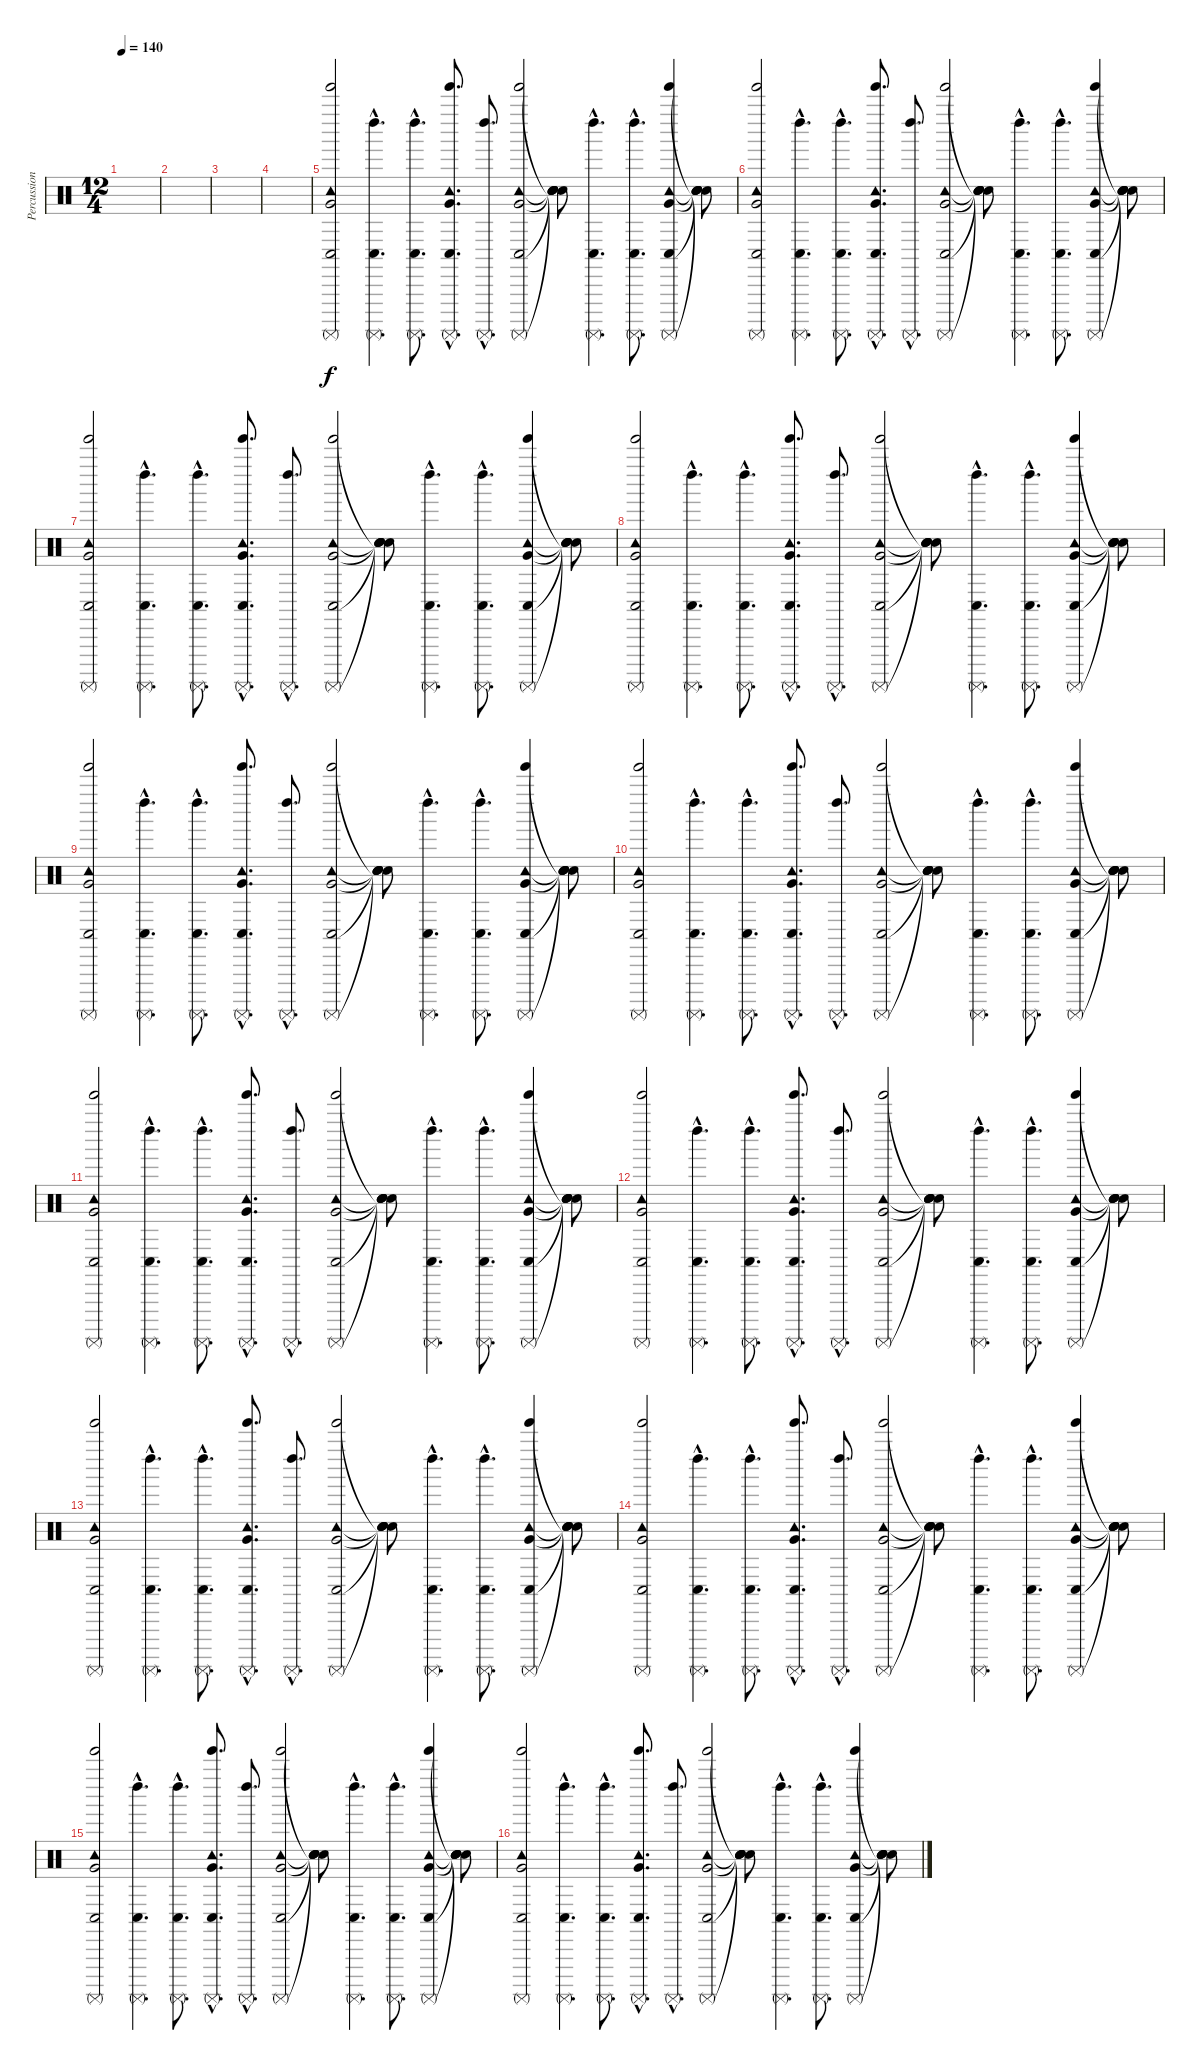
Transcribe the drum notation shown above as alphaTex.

\track ("Percussions" "Percussion") {instrument percussion}
\staff {score}
\articulation defaults
\ts (12 4)
\tempo 140
\clef neutral
\ks c
|
|
|
|
("Conga low (hit)" "Tinkle Bell (hit)" "Very Low Tom (hit)" "Tambourine (hit)" "Surdo (mute)").2 ("Conga low (hit)"{hac} "Left Maraca (hit)"{hac} "Surdo (mute)"{hac}).4{d} ("Conga low (hit)"{hac} "Left Maraca (hit)"{hac} "Surdo (mute)"{hac}).8{d} ("Conga low (hit)"{hac} "Tinkle Bell (hit)"{hac} "Very Low Tom (hit)"{hac} "Tambourine (hit)"{hac} "Surdo (mute)"{hac}).8{d} ("Left Maraca (hit)"{hac} "Surdo (mute)"{hac}).8{d} ("Conga low (hit)" "Tinkle Bell (hit)" "Very Low Tom (hit)" "Tambourine (hit)" "Surdo (mute)").2 ("Snare (hit)"{t} "Snare (hit)"{t} "Snare (hit)"{t} "Snare (hit)"{t} "Snare (hit)"{t}).8 ("Conga low (hit)"{hac} "Left Maraca (hit)"{hac} "Surdo (mute)"{hac}).4{d} ("Conga low (hit)"{hac} "Left Maraca (hit)"{hac} "Surdo (mute)"{hac}).8{d} ("Conga low (hit)" "Tinkle Bell (hit)" "Very Low Tom (hit)" "Tambourine (hit)" "Surdo (mute)").4 ("Snare (hit)"{t} "Snare (hit)"{t} "Snare (hit)"{t} "Snare (hit)"{t} "Snare (hit)"{t}).8 |
("Conga low (hit)" "Tinkle Bell (hit)" "Very Low Tom (hit)" "Tambourine (hit)" "Surdo (mute)").2 ("Conga low (hit)"{hac} "Left Maraca (hit)"{hac} "Surdo (mute)"{hac}).4{d} ("Conga low (hit)"{hac} "Left Maraca (hit)"{hac} "Surdo (mute)"{hac}).8{d} ("Conga low (hit)"{hac} "Tinkle Bell (hit)"{hac} "Very Low Tom (hit)"{hac} "Tambourine (hit)"{hac} "Surdo (mute)"{hac}).8{d} ("Left Maraca (hit)"{hac} "Surdo (mute)"{hac}).8{d} ("Conga low (hit)" "Tinkle Bell (hit)" "Very Low Tom (hit)" "Tambourine (hit)" "Surdo (mute)").2 ("Snare (hit)"{t} "Snare (hit)"{t} "Snare (hit)"{t} "Snare (hit)"{t} "Snare (hit)"{t}).8 ("Conga low (hit)"{hac} "Left Maraca (hit)"{hac} "Surdo (mute)"{hac}).4{d} ("Conga low (hit)"{hac} "Left Maraca (hit)"{hac} "Surdo (mute)"{hac}).8{d} ("Conga low (hit)" "Tinkle Bell (hit)" "Very Low Tom (hit)" "Tambourine (hit)" "Surdo (mute)").4 ("Snare (hit)"{t} "Snare (hit)"{t} "Snare (hit)"{t} "Snare (hit)"{t} "Snare (hit)"{t}).8 |
("Conga low (hit)" "Tinkle Bell (hit)" "Very Low Tom (hit)" "Tambourine (hit)" "Surdo (mute)").2 ("Conga low (hit)"{hac} "Left Maraca (hit)"{hac} "Surdo (mute)"{hac}).4{d} ("Conga low (hit)"{hac} "Left Maraca (hit)"{hac} "Surdo (mute)"{hac}).8{d} ("Conga low (hit)"{hac} "Tinkle Bell (hit)"{hac} "Very Low Tom (hit)"{hac} "Tambourine (hit)"{hac} "Surdo (mute)"{hac}).8{d} ("Left Maraca (hit)"{hac} "Surdo (mute)"{hac}).8{d} ("Conga low (hit)" "Tinkle Bell (hit)" "Very Low Tom (hit)" "Tambourine (hit)" "Surdo (mute)").2 ("Snare (hit)"{t} "Snare (hit)"{t} "Snare (hit)"{t} "Snare (hit)"{t} "Snare (hit)"{t}).8 ("Conga low (hit)"{hac} "Left Maraca (hit)"{hac} "Surdo (mute)"{hac}).4{d} ("Conga low (hit)"{hac} "Left Maraca (hit)"{hac} "Surdo (mute)"{hac}).8{d} ("Conga low (hit)" "Tinkle Bell (hit)" "Very Low Tom (hit)" "Tambourine (hit)" "Surdo (mute)").4 ("Snare (hit)"{t} "Snare (hit)"{t} "Snare (hit)"{t} "Snare (hit)"{t} "Snare (hit)"{t}).8 |
("Conga low (hit)" "Tinkle Bell (hit)" "Very Low Tom (hit)" "Tambourine (hit)" "Surdo (mute)").2 ("Conga low (hit)"{hac} "Left Maraca (hit)"{hac} "Surdo (mute)"{hac}).4{d} ("Conga low (hit)"{hac} "Left Maraca (hit)"{hac} "Surdo (mute)"{hac}).8{d} ("Conga low (hit)"{hac} "Tinkle Bell (hit)"{hac} "Very Low Tom (hit)"{hac} "Tambourine (hit)"{hac} "Surdo (mute)"{hac}).8{d} ("Left Maraca (hit)"{hac} "Surdo (mute)"{hac}).8{d} ("Conga low (hit)" "Tinkle Bell (hit)" "Very Low Tom (hit)" "Tambourine (hit)" "Surdo (mute)").2 ("Snare (hit)"{t} "Snare (hit)"{t} "Snare (hit)"{t} "Snare (hit)"{t} "Snare (hit)"{t}).8 ("Conga low (hit)"{hac} "Left Maraca (hit)"{hac} "Surdo (mute)"{hac}).4{d} ("Conga low (hit)"{hac} "Left Maraca (hit)"{hac} "Surdo (mute)"{hac}).8{d} ("Conga low (hit)" "Tinkle Bell (hit)" "Very Low Tom (hit)" "Tambourine (hit)" "Surdo (mute)").4 ("Snare (hit)"{t} "Snare (hit)"{t} "Snare (hit)"{t} "Snare (hit)"{t} "Snare (hit)"{t}).8 |
("Conga low (hit)" "Tinkle Bell (hit)" "Very Low Tom (hit)" "Tambourine (hit)" "Surdo (mute)").2 ("Conga low (hit)"{hac} "Left Maraca (hit)"{hac} "Surdo (mute)"{hac}).4{d} ("Conga low (hit)"{hac} "Left Maraca (hit)"{hac} "Surdo (mute)"{hac}).8{d} ("Conga low (hit)"{hac} "Tinkle Bell (hit)"{hac} "Very Low Tom (hit)"{hac} "Tambourine (hit)"{hac} "Surdo (mute)"{hac}).8{d} ("Left Maraca (hit)"{hac} "Surdo (mute)"{hac}).8{d} ("Conga low (hit)" "Tinkle Bell (hit)" "Very Low Tom (hit)" "Tambourine (hit)" "Surdo (mute)").2 ("Snare (hit)"{t} "Snare (hit)"{t} "Snare (hit)"{t} "Snare (hit)"{t} "Snare (hit)"{t}).8 ("Conga low (hit)"{hac} "Left Maraca (hit)"{hac} "Surdo (mute)"{hac}).4{d} ("Conga low (hit)"{hac} "Left Maraca (hit)"{hac} "Surdo (mute)"{hac}).8{d} ("Conga low (hit)" "Tinkle Bell (hit)" "Very Low Tom (hit)" "Tambourine (hit)" "Surdo (mute)").4 ("Snare (hit)"{t} "Snare (hit)"{t} "Snare (hit)"{t} "Snare (hit)"{t} "Snare (hit)"{t}).8 |
("Conga low (hit)" "Tinkle Bell (hit)" "Very Low Tom (hit)" "Tambourine (hit)" "Surdo (mute)").2 ("Conga low (hit)"{hac} "Left Maraca (hit)"{hac} "Surdo (mute)"{hac}).4{d} ("Conga low (hit)"{hac} "Left Maraca (hit)"{hac} "Surdo (mute)"{hac}).8{d} ("Conga low (hit)"{hac} "Tinkle Bell (hit)"{hac} "Very Low Tom (hit)"{hac} "Tambourine (hit)"{hac} "Surdo (mute)"{hac}).8{d} ("Left Maraca (hit)"{hac} "Surdo (mute)"{hac}).8{d} ("Conga low (hit)" "Tinkle Bell (hit)" "Very Low Tom (hit)" "Tambourine (hit)" "Surdo (mute)").2 ("Snare (hit)"{t} "Snare (hit)"{t} "Snare (hit)"{t} "Snare (hit)"{t} "Snare (hit)"{t}).8 ("Conga low (hit)"{hac} "Left Maraca (hit)"{hac} "Surdo (mute)"{hac}).4{d} ("Conga low (hit)"{hac} "Left Maraca (hit)"{hac} "Surdo (mute)"{hac}).8{d} ("Conga low (hit)" "Tinkle Bell (hit)" "Very Low Tom (hit)" "Tambourine (hit)" "Surdo (mute)").4 ("Snare (hit)"{t} "Snare (hit)"{t} "Snare (hit)"{t} "Snare (hit)"{t} "Snare (hit)"{t}).8 |
("Conga low (hit)" "Tinkle Bell (hit)" "Very Low Tom (hit)" "Tambourine (hit)" "Surdo (mute)").2 ("Conga low (hit)"{hac} "Left Maraca (hit)"{hac} "Surdo (mute)"{hac}).4{d} ("Conga low (hit)"{hac} "Left Maraca (hit)"{hac} "Surdo (mute)"{hac}).8{d} ("Conga low (hit)"{hac} "Tinkle Bell (hit)"{hac} "Very Low Tom (hit)"{hac} "Tambourine (hit)"{hac} "Surdo (mute)"{hac}).8{d} ("Left Maraca (hit)"{hac} "Surdo (mute)"{hac}).8{d} ("Conga low (hit)" "Tinkle Bell (hit)" "Very Low Tom (hit)" "Tambourine (hit)" "Surdo (mute)").2 ("Snare (hit)"{t} "Snare (hit)"{t} "Snare (hit)"{t} "Snare (hit)"{t} "Snare (hit)"{t}).8 ("Conga low (hit)"{hac} "Left Maraca (hit)"{hac} "Surdo (mute)"{hac}).4{d} ("Conga low (hit)"{hac} "Left Maraca (hit)"{hac} "Surdo (mute)"{hac}).8{d} ("Conga low (hit)" "Tinkle Bell (hit)" "Very Low Tom (hit)" "Tambourine (hit)" "Surdo (mute)").4 ("Snare (hit)"{t} "Snare (hit)"{t} "Snare (hit)"{t} "Snare (hit)"{t} "Snare (hit)"{t}).8 |
("Conga low (hit)" "Tinkle Bell (hit)" "Very Low Tom (hit)" "Tambourine (hit)" "Surdo (mute)").2 ("Conga low (hit)"{hac} "Left Maraca (hit)"{hac} "Surdo (mute)"{hac}).4{d} ("Conga low (hit)"{hac} "Left Maraca (hit)"{hac} "Surdo (mute)"{hac}).8{d} ("Conga low (hit)"{hac} "Tinkle Bell (hit)"{hac} "Very Low Tom (hit)"{hac} "Tambourine (hit)"{hac} "Surdo (mute)"{hac}).8{d} ("Left Maraca (hit)"{hac} "Surdo (mute)"{hac}).8{d} ("Conga low (hit)" "Tinkle Bell (hit)" "Very Low Tom (hit)" "Tambourine (hit)" "Surdo (mute)").2 ("Snare (hit)"{t} "Snare (hit)"{t} "Snare (hit)"{t} "Snare (hit)"{t} "Snare (hit)"{t}).8 ("Conga low (hit)"{hac} "Left Maraca (hit)"{hac} "Surdo (mute)"{hac}).4{d} ("Conga low (hit)"{hac} "Left Maraca (hit)"{hac} "Surdo (mute)"{hac}).8{d} ("Conga low (hit)" "Tinkle Bell (hit)" "Very Low Tom (hit)" "Tambourine (hit)" "Surdo (mute)").4 ("Snare (hit)"{t} "Snare (hit)"{t} "Snare (hit)"{t} "Snare (hit)"{t} "Snare (hit)"{t}).8 |
("Conga low (hit)" "Tinkle Bell (hit)" "Very Low Tom (hit)" "Tambourine (hit)" "Surdo (mute)").2 ("Conga low (hit)"{hac} "Left Maraca (hit)"{hac} "Surdo (mute)"{hac}).4{d} ("Conga low (hit)"{hac} "Left Maraca (hit)"{hac} "Surdo (mute)"{hac}).8{d} ("Conga low (hit)"{hac} "Tinkle Bell (hit)"{hac} "Very Low Tom (hit)"{hac} "Tambourine (hit)"{hac} "Surdo (mute)"{hac}).8{d} ("Left Maraca (hit)"{hac} "Surdo (mute)"{hac}).8{d} ("Conga low (hit)" "Tinkle Bell (hit)" "Very Low Tom (hit)" "Tambourine (hit)" "Surdo (mute)").2 ("Snare (hit)"{t} "Snare (hit)"{t} "Snare (hit)"{t} "Snare (hit)"{t} "Snare (hit)"{t}).8 ("Conga low (hit)"{hac} "Left Maraca (hit)"{hac} "Surdo (mute)"{hac}).4{d} ("Conga low (hit)"{hac} "Left Maraca (hit)"{hac} "Surdo (mute)"{hac}).8{d} ("Conga low (hit)" "Tinkle Bell (hit)" "Very Low Tom (hit)" "Tambourine (hit)" "Surdo (mute)").4 ("Snare (hit)"{t} "Snare (hit)"{t} "Snare (hit)"{t} "Snare (hit)"{t} "Snare (hit)"{t}).8 |
("Conga low (hit)" "Tinkle Bell (hit)" "Very Low Tom (hit)" "Tambourine (hit)" "Surdo (mute)").2 ("Conga low (hit)"{hac} "Left Maraca (hit)"{hac} "Surdo (mute)"{hac}).4{d} ("Conga low (hit)"{hac} "Left Maraca (hit)"{hac} "Surdo (mute)"{hac}).8{d} ("Conga low (hit)"{hac} "Tinkle Bell (hit)"{hac} "Very Low Tom (hit)"{hac} "Tambourine (hit)"{hac} "Surdo (mute)"{hac}).8{d} ("Left Maraca (hit)"{hac} "Surdo (mute)"{hac}).8{d} ("Conga low (hit)" "Tinkle Bell (hit)" "Very Low Tom (hit)" "Tambourine (hit)" "Surdo (mute)").2 ("Snare (hit)"{t} "Snare (hit)"{t} "Snare (hit)"{t} "Snare (hit)"{t} "Snare (hit)"{t}).8 ("Conga low (hit)"{hac} "Left Maraca (hit)"{hac} "Surdo (mute)"{hac}).4{d} ("Conga low (hit)"{hac} "Left Maraca (hit)"{hac} "Surdo (mute)"{hac}).8{d} ("Conga low (hit)" "Tinkle Bell (hit)" "Very Low Tom (hit)" "Tambourine (hit)" "Surdo (mute)").4 ("Snare (hit)"{t} "Snare (hit)"{t} "Snare (hit)"{t} "Snare (hit)"{t} "Snare (hit)"{t}).8 |
("Conga low (hit)" "Tinkle Bell (hit)" "Very Low Tom (hit)" "Tambourine (hit)" "Surdo (mute)").2 ("Conga low (hit)"{hac} "Left Maraca (hit)"{hac} "Surdo (mute)"{hac}).4{d} ("Conga low (hit)"{hac} "Left Maraca (hit)"{hac} "Surdo (mute)"{hac}).8{d} ("Conga low (hit)"{hac} "Tinkle Bell (hit)"{hac} "Very Low Tom (hit)"{hac} "Tambourine (hit)"{hac} "Surdo (mute)"{hac}).8{d} ("Left Maraca (hit)"{hac} "Surdo (mute)"{hac}).8{d} ("Conga low (hit)" "Tinkle Bell (hit)" "Very Low Tom (hit)" "Tambourine (hit)" "Surdo (mute)").2 ("Snare (hit)"{t} "Snare (hit)"{t} "Snare (hit)"{t} "Snare (hit)"{t} "Snare (hit)"{t}).8 ("Conga low (hit)"{hac} "Left Maraca (hit)"{hac} "Surdo (mute)"{hac}).4{d} ("Conga low (hit)"{hac} "Left Maraca (hit)"{hac} "Surdo (mute)"{hac}).8{d} ("Conga low (hit)" "Tinkle Bell (hit)" "Very Low Tom (hit)" "Tambourine (hit)" "Surdo (mute)").4 ("Snare (hit)"{t} "Snare (hit)"{t} "Snare (hit)"{t} "Snare (hit)"{t} "Snare (hit)"{t}).8 |
("Conga low (hit)" "Tinkle Bell (hit)" "Very Low Tom (hit)" "Tambourine (hit)" "Surdo (mute)").2 ("Conga low (hit)"{hac} "Left Maraca (hit)"{hac} "Surdo (mute)"{hac}).4{d} ("Conga low (hit)"{hac} "Left Maraca (hit)"{hac} "Surdo (mute)"{hac}).8{d} ("Conga low (hit)"{hac} "Tinkle Bell (hit)"{hac} "Very Low Tom (hit)"{hac} "Tambourine (hit)"{hac} "Surdo (mute)"{hac}).8{d} ("Left Maraca (hit)"{hac} "Surdo (mute)"{hac}).8{d} ("Conga low (hit)" "Tinkle Bell (hit)" "Very Low Tom (hit)" "Tambourine (hit)" "Surdo (mute)").2 ("Snare (hit)"{t} "Snare (hit)"{t} "Snare (hit)"{t} "Snare (hit)"{t} "Snare (hit)"{t}).8 ("Conga low (hit)"{hac} "Left Maraca (hit)"{hac} "Surdo (mute)"{hac}).4{d} ("Conga low (hit)"{hac} "Left Maraca (hit)"{hac} "Surdo (mute)"{hac}).8{d} ("Conga low (hit)" "Tinkle Bell (hit)" "Very Low Tom (hit)" "Tambourine (hit)" "Surdo (mute)").4 ("Snare (hit)"{t} "Snare (hit)"{t} "Snare (hit)"{t} "Snare (hit)"{t} "Snare (hit)"{t}).8
